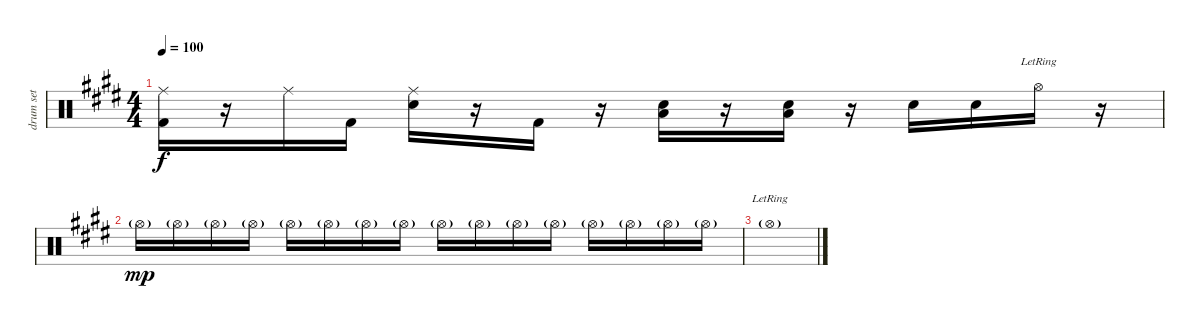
\track ("drum set" "drum set") {instrument percussion}
\staff {score}
\articulation defaults
\ts (4 4)
\tempo 100
\clef neutral
\ks e
("Ride (middle)" "Kick (hit) 2").16{dy f} r.16 "Ride (middle)".16 "Kick (hit) 2".16 ("Ride (middle)" "Snare (hit) 2").16 r.16 "Kick (hit) 2".16 r.16 ("Snare (hit) 2" "Low Tom (hit)").16 r.16 ("Snare (hit) 2" "Low Tom (hit)").16 r.16 "Snare (hit) 2".16 "Snare (hit) 2".16 "Hi-Hat (open)"{lr}.16 r.16 |
"Hi-Hat (open)"{g}.16{dy mp} "Hi-Hat (open)"{g}.16 "Hi-Hat (open)"{g}.16 "Hi-Hat (open)"{g}.16 "Hi-Hat (open)"{g}.16 "Hi-Hat (open)"{g}.16 "Hi-Hat (open)"{g}.16 "Hi-Hat (open)"{g}.16 "Hi-Hat (open)"{g}.16 "Hi-Hat (open)"{g}.16 "Hi-Hat (open)"{g}.16 "Hi-Hat (open)"{g}.16 "Hi-Hat (open)"{g}.16 "Hi-Hat (open)"{g}.16 "Hi-Hat (open)"{g}.16 "Hi-Hat (open)"{g}.16 |
"Hi-Hat (open)"{g lr}.1
